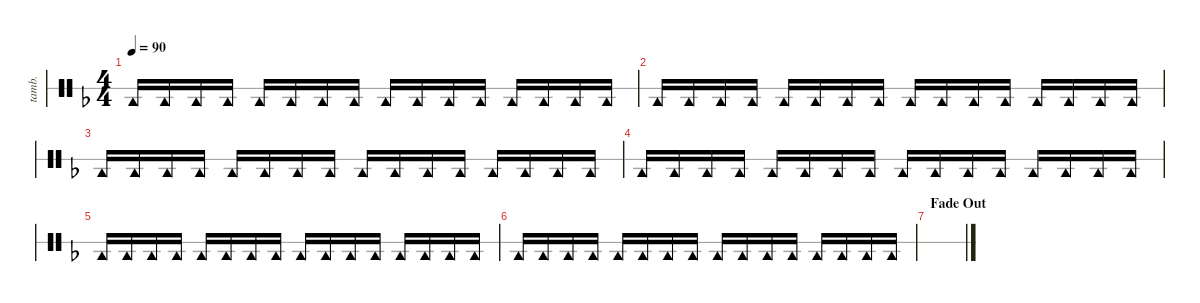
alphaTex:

\defaultSystemsLayout 4
\hideDynamics
\bracketExtendMode nobrackets
\track ("Tambourine" "tamb.") {instrument percussion}
\staff {score 1}
\articulation defaults
\ts (4 4)
\tempo 90
\clef neutral
\ks f "Tambourine (hit)"{acc forcenatural}.16{dy mf} "Tambourine (hit)"{acc forcenatural}.16 "Tambourine (hit)"{acc forcenatural}.16 "Tambourine (hit)"{acc forcenatural}.16 "Tambourine (hit)"{acc forcenatural}.16 "Tambourine (hit)"{acc forcenatural}.16 "Tambourine (hit)"{acc forcenatural}.16 "Tambourine (hit)"{acc forcenatural}.16 "Tambourine (hit)"{acc forcenatural}.16 "Tambourine (hit)"{acc forcenatural}.16 "Tambourine (hit)"{acc forcenatural}.16 "Tambourine (hit)"{acc forcenatural}.16 "Tambourine (hit)"{acc forcenatural}.16 "Tambourine (hit)"{acc forcenatural}.16 "Tambourine (hit)"{acc forcenatural}.16 "Tambourine (hit)"{acc forcenatural}.16
|
"Tambourine (hit)"{acc forcenatural}.16 "Tambourine (hit)"{acc forcenatural}.16 "Tambourine (hit)"{acc forcenatural}.16 "Tambourine (hit)"{acc forcenatural}.16 "Tambourine (hit)"{acc forcenatural}.16 "Tambourine (hit)"{acc forcenatural}.16 "Tambourine (hit)"{acc forcenatural}.16 "Tambourine (hit)"{acc forcenatural}.16 "Tambourine (hit)"{acc forcenatural}.16 "Tambourine (hit)"{acc forcenatural}.16 "Tambourine (hit)"{acc forcenatural}.16 "Tambourine (hit)"{acc forcenatural}.16 "Tambourine (hit)"{acc forcenatural}.16 "Tambourine (hit)"{acc forcenatural}.16 "Tambourine (hit)"{acc forcenatural}.16 "Tambourine (hit)"{acc forcenatural}.16 |
"Tambourine (hit)"{acc forcenatural}.16 "Tambourine (hit)"{acc forcenatural}.16 "Tambourine (hit)"{acc forcenatural}.16 "Tambourine (hit)"{acc forcenatural}.16 "Tambourine (hit)"{acc forcenatural}.16 "Tambourine (hit)"{acc forcenatural}.16 "Tambourine (hit)"{acc forcenatural}.16 "Tambourine (hit)"{acc forcenatural}.16 "Tambourine (hit)"{acc forcenatural}.16 "Tambourine (hit)"{acc forcenatural}.16 "Tambourine (hit)"{acc forcenatural}.16 "Tambourine (hit)"{acc forcenatural}.16 "Tambourine (hit)"{acc forcenatural}.16 "Tambourine (hit)"{acc forcenatural}.16 "Tambourine (hit)"{acc forcenatural}.16 "Tambourine (hit)"{acc forcenatural}.16 |
"Tambourine (hit)"{acc forcenatural}.16 "Tambourine (hit)"{acc forcenatural}.16 "Tambourine (hit)"{acc forcenatural}.16 "Tambourine (hit)"{acc forcenatural}.16 "Tambourine (hit)"{acc forcenatural}.16 "Tambourine (hit)"{acc forcenatural}.16 "Tambourine (hit)"{acc forcenatural}.16 "Tambourine (hit)"{acc forcenatural}.16 "Tambourine (hit)"{acc forcenatural}.16 "Tambourine (hit)"{acc forcenatural}.16 "Tambourine (hit)"{acc forcenatural}.16 "Tambourine (hit)"{acc forcenatural}.16 "Tambourine (hit)"{acc forcenatural}.16 "Tambourine (hit)"{acc forcenatural}.16 "Tambourine (hit)"{acc forcenatural}.16 "Tambourine (hit)"{acc forcenatural}.16 |
"Tambourine (hit)"{acc forcenatural}.16 "Tambourine (hit)"{acc forcenatural}.16 "Tambourine (hit)"{acc forcenatural}.16 "Tambourine (hit)"{acc forcenatural}.16 "Tambourine (hit)"{acc forcenatural}.16 "Tambourine (hit)"{acc forcenatural}.16 "Tambourine (hit)"{acc forcenatural}.16 "Tambourine (hit)"{acc forcenatural}.16 "Tambourine (hit)"{acc forcenatural}.16 "Tambourine (hit)"{acc forcenatural}.16 "Tambourine (hit)"{acc forcenatural}.16 "Tambourine (hit)"{acc forcenatural}.16 "Tambourine (hit)"{acc forcenatural}.16 "Tambourine (hit)"{acc forcenatural}.16 "Tambourine (hit)"{acc forcenatural}.16 "Tambourine (hit)"{acc forcenatural}.16 |
"Tambourine (hit)"{acc forcenatural}.16 "Tambourine (hit)"{acc forcenatural}.16 "Tambourine (hit)"{acc forcenatural}.16 "Tambourine (hit)"{acc forcenatural}.16 "Tambourine (hit)"{acc forcenatural}.16 "Tambourine (hit)"{acc forcenatural}.16 "Tambourine (hit)"{acc forcenatural}.16 "Tambourine (hit)"{acc forcenatural}.16 "Tambourine (hit)"{acc forcenatural}.16 "Tambourine (hit)"{acc forcenatural}.16 "Tambourine (hit)"{acc forcenatural}.16 "Tambourine (hit)"{acc forcenatural}.16 "Tambourine (hit)"{acc forcenatural}.16 "Tambourine (hit)"{acc forcenatural}.16 "Tambourine (hit)"{acc forcenatural}.16 "Tambourine (hit)"{acc forcenatural}.16 |
\section ("" "Fade Out")
